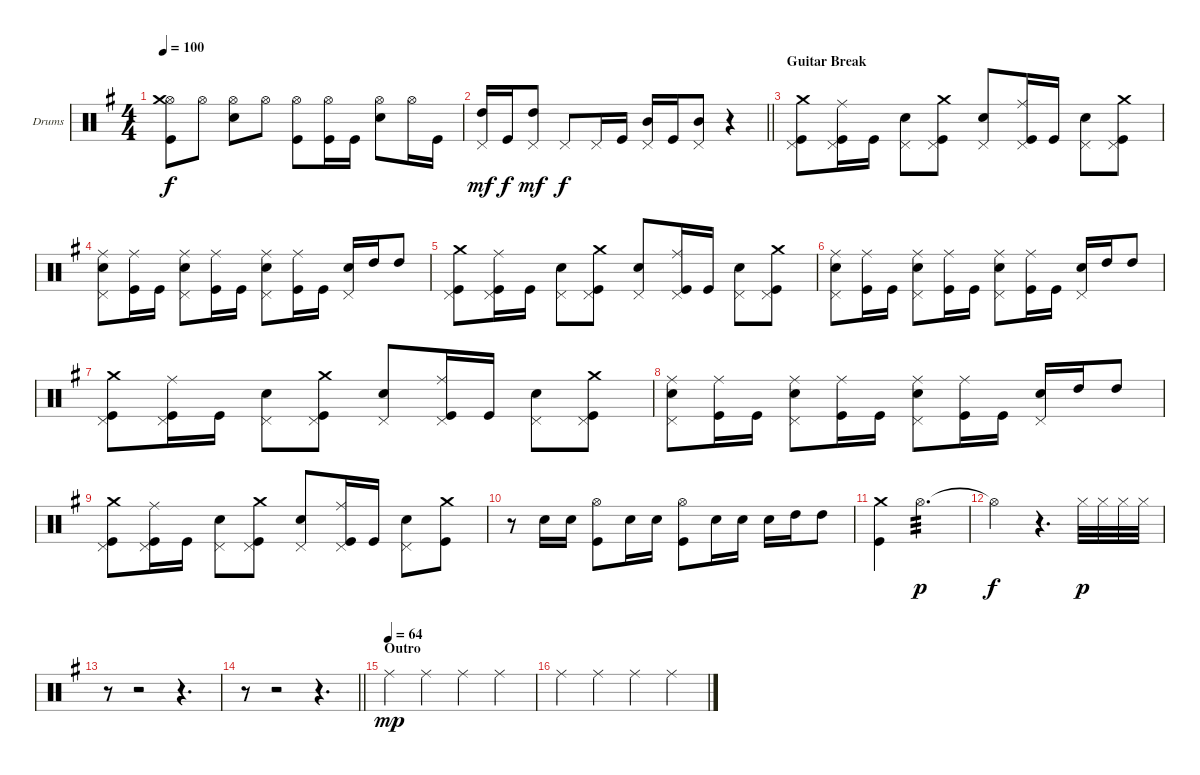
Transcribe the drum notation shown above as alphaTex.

\bracketExtendMode groupsimilarinstruments
\firstSystemTrackNameOrientation horizontal
\otherSystemsTrackNameOrientation horizontal
\track ("Барабаны" "Drums") {instrument percussion}
\staff {score}
\articulation defaults
\ts (4 4)
\tempo 100
\clef neutral
\ks eminor
("Hi-Hat (open)" "Crash medium (hit)" "Kick (hit)").8{dy f} "Hi-Hat (open)".8 ("Hi-Hat (open)" "Snare (hit) 2").8 "Hi-Hat (open)".8 ("Hi-Hat (open)" "Kick (hit)").8 ("Hi-Hat (open)" "Kick (hit)").16 "Kick (hit)".16 ("Hi-Hat (open)" "Snare (hit) 2").8 "Hi-Hat (open)".16 "Kick (hit)".16 |
\barLineRight lightlight
("High Tom (hit)" "Pedal Hi-Hat (hit)").16{dy mf} "Kick (hit)".16{dy f} ("Pedal Hi-Hat (hit)" "High Tom (hit)").8{dy mf} "Pedal Hi-Hat (hit)".8{dy f} "Pedal Hi-Hat (hit)".16 "Kick (hit)".16 ("Mid Tom (hit)" "Pedal Hi-Hat (hit)").16 "Kick (hit)".16 ("Mid Tom (hit)" "Pedal Hi-Hat (hit)").8 r.4 |
\section ("" "Guitar Break")
("Kick (hit)" "Crash medium (hit)" "Pedal Hi-Hat (hit)").8 ("Kick (hit)" "Pedal Hi-Hat (hit)" "Ride (middle)").16 "Kick (hit)".16 ("Snare (hit) 2" "Pedal Hi-Hat (hit)").8 ("Kick (hit)" "Crash medium (hit)" "Pedal Hi-Hat (hit)").8 ("Pedal Hi-Hat (hit)" "Snare (hit) 2").8 ("Kick (hit)" "Ride (middle)" "Pedal Hi-Hat (hit)").16 "Kick (hit)".16 ("Snare (hit) 2" "Pedal Hi-Hat (hit)").8 ("Kick (hit)" "Crash medium (hit)" "Pedal Hi-Hat (hit)").8 |
("Pedal Hi-Hat (hit)" "Snare (hit) 2" "Ride (middle)").8 ("Kick (hit)" "Ride (middle)").16 "Kick (hit)".16 ("Snare (hit) 2" "Pedal Hi-Hat (hit)" "Ride (middle)").8 ("Kick (hit)" "Ride (middle)").16 "Kick (hit)".16 ("Pedal Hi-Hat (hit)" "Ride (middle)" "Snare (hit) 2").8 ("Kick (hit)" "Ride (middle)").16 "Kick (hit)".16 ("Pedal Hi-Hat (hit)" "Snare (hit) 2").16 "High Tom (hit)".16 "High Tom (hit)".8 |
("Kick (hit)" "Crash medium (hit)" "Pedal Hi-Hat (hit)").8 ("Kick (hit)" "Pedal Hi-Hat (hit)" "Ride (middle)").16 "Kick (hit)".16 ("Snare (hit) 2" "Pedal Hi-Hat (hit)").8 ("Kick (hit)" "Crash medium (hit)" "Pedal Hi-Hat (hit)").8 ("Pedal Hi-Hat (hit)" "Snare (hit) 2").8 ("Kick (hit)" "Ride (middle)" "Pedal Hi-Hat (hit)").16 "Kick (hit)".16 ("Snare (hit) 2" "Pedal Hi-Hat (hit)").8 ("Kick (hit)" "Crash medium (hit)" "Pedal Hi-Hat (hit)").8 |
("Pedal Hi-Hat (hit)" "Snare (hit) 2" "Ride (middle)").8 ("Kick (hit)" "Ride (middle)").16 "Kick (hit)".16 ("Snare (hit) 2" "Pedal Hi-Hat (hit)" "Ride (middle)").8 ("Kick (hit)" "Ride (middle)").16 "Kick (hit)".16 ("Pedal Hi-Hat (hit)" "Ride (middle)" "Snare (hit) 2").8 ("Kick (hit)" "Ride (middle)").16 "Kick (hit)".16 ("Pedal Hi-Hat (hit)" "Snare (hit) 2").16 "High Tom (hit)".16 "High Tom (hit)".8 |
("Kick (hit)" "Crash medium (hit)" "Pedal Hi-Hat (hit)").8 ("Kick (hit)" "Pedal Hi-Hat (hit)" "Ride (middle)").16 "Kick (hit)".16 ("Snare (hit) 2" "Pedal Hi-Hat (hit)").8 ("Kick (hit)" "Crash medium (hit)" "Pedal Hi-Hat (hit)").8 ("Pedal Hi-Hat (hit)" "Snare (hit) 2").8 ("Kick (hit)" "Ride (middle)" "Pedal Hi-Hat (hit)").16 "Kick (hit)".16 ("Snare (hit) 2" "Pedal Hi-Hat (hit)").8 ("Kick (hit)" "Crash medium (hit)" "Pedal Hi-Hat (hit)").8 |
("Pedal Hi-Hat (hit)" "Snare (hit) 2" "Ride (middle)").8 ("Kick (hit)" "Ride (middle)").16 "Kick (hit)".16 ("Snare (hit) 2" "Pedal Hi-Hat (hit)" "Ride (middle)").8 ("Kick (hit)" "Ride (middle)").16 "Kick (hit)".16 ("Pedal Hi-Hat (hit)" "Ride (middle)" "Snare (hit) 2").8 ("Kick (hit)" "Ride (middle)").16 "Kick (hit)".16 ("Pedal Hi-Hat (hit)" "Snare (hit) 2").16 "High Tom (hit)".16 "High Tom (hit)".8 |
("Kick (hit)" "Crash medium (hit)" "Pedal Hi-Hat (hit)").8 ("Kick (hit)" "Pedal Hi-Hat (hit)" "Ride (middle)").16 "Kick (hit)".16 ("Snare (hit) 2" "Pedal Hi-Hat (hit)").8 ("Kick (hit)" "Crash medium (hit)" "Pedal Hi-Hat (hit)").8 ("Pedal Hi-Hat (hit)" "Snare (hit) 2").8 ("Kick (hit)" "Ride (middle)" "Pedal Hi-Hat (hit)").16 "Kick (hit)".16 ("Snare (hit) 2" "Pedal Hi-Hat (hit)").8 ("Kick (hit)" "Crash medium (hit)").8 |
r.8 "Snare (hit) 2".16 "Snare (hit) 2".16 ("Kick (hit)" "Hi-Hat (open)").8 "Snare (hit) 2".16 "Snare (hit) 2".16 ("Kick (hit)" "Hi-Hat (open)").8 "Snare (hit) 2".16 "Snare (hit) 2".16 "Snare (hit) 2".16 "High Tom (hit)".16 "High Tom (hit)".8 |
("Kick (hit)" "Crash medium (hit)").4 "Hi-Hat (open)".2{d tp 3 dy p} |
"Hi-Hat (open)"{t}.2{dy f} r.4{d} "Hi-Hat (closed)".32{dy p} "Hi-Hat (closed)".32 "Hi-Hat (closed)".32 "Hi-Hat (closed)".32 |
r.8 r.2 r.4{d} |
\barLineRight lightlight
r.8 r.2 r.4{d} |
\section ("" "Outro")
\tempo (64)
"Ride (middle)".4{dy mp} "Ride (middle)".4 "Ride (middle)".4 "Ride (middle)".4 |
"Ride (middle)".4 "Ride (middle)".4 "Ride (middle)".4 "Ride (middle)".4
